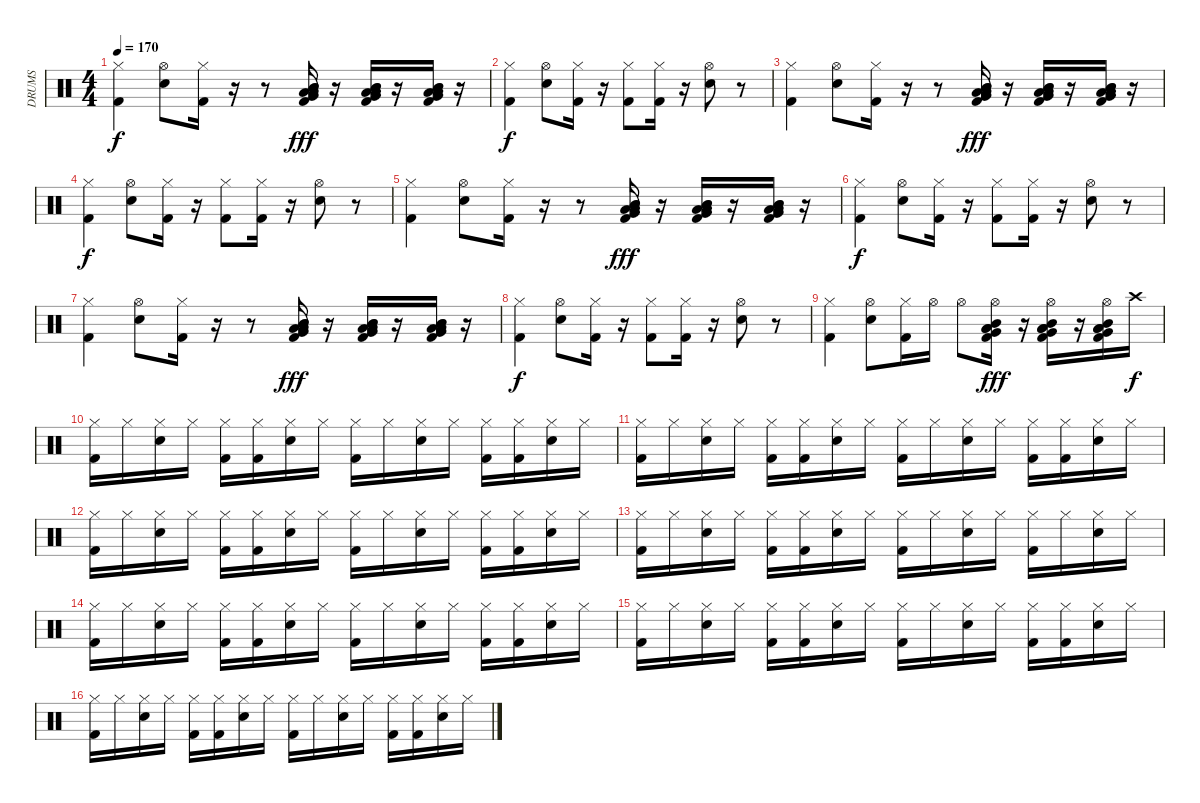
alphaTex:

\track ("DRUMS" "DRUMS") {instrument percussion}
\staff {score}
\articulation defaults
\ts (4 4)
\tempo 170
\clef neutral
\ks c
("Hi-Hat (closed)" "Kick (hit) 2").4{dy f} ("Hi-Hat (open)" "Electric Snare (hit)").8 ("Hi-Hat (closed)" "Kick (hit) 2").16 r.16 r.8 ("Mid Tom (hit)" "Low Floor Tom (hit)" "Very Low Tom (hit)" "Kick (hit) 2" "Mid Tom (hit)" "Low Floor Tom (hit)").16{dy fff} r.16 ("Mid Tom (hit)" "Low Floor Tom (hit)" "Very Low Tom (hit)" "Kick (hit) 2" "Mid Tom (hit)" "Low Floor Tom (hit)").16 r.16 ("Mid Tom (hit)" "Low Floor Tom (hit)" "Very Low Tom (hit)" "Kick (hit) 2" "Mid Tom (hit)" "Low Floor Tom (hit)").16 r.16 |
("Hi-Hat (closed)" "Kick (hit) 2").4{dy f} ("Hi-Hat (open)" "Electric Snare (hit)").8 ("Hi-Hat (closed)" "Kick (hit) 2").16 r.16 ("Hi-Hat (closed)" "Kick (hit) 2").8 ("Hi-Hat (closed)" "Kick (hit) 2").16 r.16 ("Hi-Hat (open)" "Electric Snare (hit)").8 r.8 |
("Hi-Hat (closed)" "Kick (hit) 2").4 ("Hi-Hat (open)" "Electric Snare (hit)").8 ("Hi-Hat (closed)" "Kick (hit) 2").16 r.16 r.8 ("Mid Tom (hit)" "Low Floor Tom (hit)" "Very Low Tom (hit)" "Kick (hit) 2" "Mid Tom (hit)" "Low Floor Tom (hit)").16{dy fff} r.16 ("Mid Tom (hit)" "Low Floor Tom (hit)" "Very Low Tom (hit)" "Kick (hit) 2" "Mid Tom (hit)" "Low Floor Tom (hit)").16 r.16 ("Mid Tom (hit)" "Low Floor Tom (hit)" "Very Low Tom (hit)" "Kick (hit) 2" "Mid Tom (hit)" "Low Floor Tom (hit)").16 r.16 |
("Hi-Hat (closed)" "Kick (hit) 2").4{dy f} ("Hi-Hat (open)" "Electric Snare (hit)").8 ("Hi-Hat (closed)" "Kick (hit) 2").16 r.16 ("Hi-Hat (closed)" "Kick (hit) 2").8 ("Hi-Hat (closed)" "Kick (hit) 2").16 r.16 ("Hi-Hat (open)" "Electric Snare (hit)").8 r.8 |
("Hi-Hat (closed)" "Kick (hit) 2").4 ("Hi-Hat (open)" "Electric Snare (hit)").8 ("Hi-Hat (closed)" "Kick (hit) 2").16 r.16 r.8 ("Mid Tom (hit)" "Low Floor Tom (hit)" "Very Low Tom (hit)" "Kick (hit) 2" "Mid Tom (hit)" "Low Floor Tom (hit)").16{dy fff} r.16 ("Mid Tom (hit)" "Low Floor Tom (hit)" "Very Low Tom (hit)" "Kick (hit) 2" "Mid Tom (hit)" "Low Floor Tom (hit)").16 r.16 ("Mid Tom (hit)" "Low Floor Tom (hit)" "Very Low Tom (hit)" "Kick (hit) 2" "Mid Tom (hit)" "Low Floor Tom (hit)").16 r.16 |
("Hi-Hat (closed)" "Kick (hit) 2").4{dy f} ("Hi-Hat (open)" "Electric Snare (hit)").8 ("Hi-Hat (closed)" "Kick (hit) 2").16 r.16 ("Hi-Hat (closed)" "Kick (hit) 2").8 ("Hi-Hat (closed)" "Kick (hit) 2").16 r.16 ("Hi-Hat (open)" "Electric Snare (hit)").8 r.8 |
("Hi-Hat (closed)" "Kick (hit) 2").4 ("Hi-Hat (open)" "Electric Snare (hit)").8 ("Hi-Hat (closed)" "Kick (hit) 2").16 r.16 r.8 ("Mid Tom (hit)" "Low Floor Tom (hit)" "Very Low Tom (hit)" "Kick (hit) 2" "Mid Tom (hit)" "Low Floor Tom (hit)").16{dy fff} r.16 ("Mid Tom (hit)" "Low Floor Tom (hit)" "Very Low Tom (hit)" "Kick (hit) 2" "Mid Tom (hit)" "Low Floor Tom (hit)").16 r.16 ("Mid Tom (hit)" "Low Floor Tom (hit)" "Very Low Tom (hit)" "Kick (hit) 2" "Mid Tom (hit)" "Low Floor Tom (hit)").16 r.16 |
("Hi-Hat (closed)" "Kick (hit) 2").4{dy f} ("Hi-Hat (open)" "Electric Snare (hit)").8 ("Hi-Hat (closed)" "Kick (hit) 2").16 r.16 ("Hi-Hat (closed)" "Kick (hit) 2").8 ("Hi-Hat (closed)" "Kick (hit) 2").16 r.16 ("Hi-Hat (open)" "Electric Snare (hit)").8 r.8 |
("Hi-Hat (closed)" "Kick (hit) 2").4 ("Hi-Hat (open)" "Electric Snare (hit)").8 ("Hi-Hat (closed)" "Kick (hit) 2").16 "Hi-Hat (open)".16 "Hi-Hat (open)".8 ("Hi-Hat (open)" "Low Floor Tom (hit)" "Very Low Tom (hit)" "Kick (hit) 2" "Mid Tom (hit)" "Low Floor Tom (hit)").16{dy fff} r.16 ("Hi-Hat (open)" "Low Floor Tom (hit)" "Very Low Tom (hit)" "Kick (hit) 2" "Mid Tom (hit)" "Low Floor Tom (hit)").16 r.16 ("Hi-Hat (open)" "Low Floor Tom (hit)" "Very Low Tom (hit)" "Kick (hit) 2" "Mid Tom (hit)" "Low Floor Tom (hit)").16 "Crash high (hit)".16{dy f} |
("Hi-Hat (closed)" "Kick (hit) 2").16 "Hi-Hat (closed)".16 ("Hi-Hat (closed)" "Electric Snare (hit)").16 "Hi-Hat (closed)".16 ("Hi-Hat (closed)" "Kick (hit) 2").16 ("Hi-Hat (closed)" "Kick (hit) 2").16 ("Hi-Hat (closed)" "Electric Snare (hit)").16 "Hi-Hat (closed)".16 ("Hi-Hat (closed)" "Kick (hit) 2").16 "Hi-Hat (closed)".16 ("Hi-Hat (closed)" "Electric Snare (hit)").16 "Hi-Hat (closed)".16 ("Hi-Hat (closed)" "Kick (hit) 2").16 ("Hi-Hat (closed)" "Kick (hit) 2").16 ("Hi-Hat (closed)" "Electric Snare (hit)").16 "Hi-Hat (closed)".16 |
("Hi-Hat (closed)" "Kick (hit) 2").16 "Hi-Hat (closed)".16 ("Hi-Hat (closed)" "Electric Snare (hit)").16 "Hi-Hat (closed)".16 ("Hi-Hat (closed)" "Kick (hit) 2").16 ("Hi-Hat (closed)" "Kick (hit) 2").16 ("Hi-Hat (closed)" "Electric Snare (hit)").16 "Hi-Hat (closed)".16 ("Hi-Hat (closed)" "Kick (hit) 2").16 "Hi-Hat (closed)".16 ("Hi-Hat (closed)" "Electric Snare (hit)").16 "Hi-Hat (closed)".16 ("Hi-Hat (closed)" "Kick (hit) 2").16 ("Hi-Hat (closed)" "Kick (hit) 2").16 ("Hi-Hat (closed)" "Electric Snare (hit)").16 "Hi-Hat (closed)".16 |
("Hi-Hat (closed)" "Kick (hit) 2").16 "Hi-Hat (closed)".16 ("Hi-Hat (closed)" "Electric Snare (hit)").16 "Hi-Hat (closed)".16 ("Hi-Hat (closed)" "Kick (hit) 2").16 ("Hi-Hat (closed)" "Kick (hit) 2").16 ("Hi-Hat (closed)" "Electric Snare (hit)").16 "Hi-Hat (closed)".16 ("Hi-Hat (closed)" "Kick (hit) 2").16 "Hi-Hat (closed)".16 ("Hi-Hat (closed)" "Electric Snare (hit)").16 "Hi-Hat (closed)".16 ("Hi-Hat (closed)" "Kick (hit) 2").16 ("Hi-Hat (closed)" "Kick (hit) 2").16 ("Hi-Hat (closed)" "Electric Snare (hit)").16 "Hi-Hat (closed)".16 |
("Hi-Hat (closed)" "Kick (hit) 2").16 "Hi-Hat (closed)".16 ("Hi-Hat (closed)" "Electric Snare (hit)").16 "Hi-Hat (closed)".16 ("Hi-Hat (closed)" "Kick (hit) 2").16 ("Hi-Hat (closed)" "Kick (hit) 2").16 ("Hi-Hat (closed)" "Electric Snare (hit)").16 "Hi-Hat (closed)".16 ("Hi-Hat (closed)" "Kick (hit) 2").16 "Hi-Hat (closed)".16 ("Hi-Hat (closed)" "Electric Snare (hit)").16 "Hi-Hat (closed)".16 ("Hi-Hat (closed)" "Kick (hit) 2").16 "Hi-Hat (closed)".16 ("Hi-Hat (closed)" "Electric Snare (hit)").16 "Hi-Hat (closed)".16 |
("Hi-Hat (closed)" "Kick (hit) 2").16 "Hi-Hat (closed)".16 ("Hi-Hat (closed)" "Electric Snare (hit)").16 "Hi-Hat (closed)".16 ("Hi-Hat (closed)" "Kick (hit) 2").16 ("Hi-Hat (closed)" "Kick (hit) 2").16 ("Hi-Hat (closed)" "Electric Snare (hit)").16 "Hi-Hat (closed)".16 ("Hi-Hat (closed)" "Kick (hit) 2").16 "Hi-Hat (closed)".16 ("Hi-Hat (closed)" "Electric Snare (hit)").16 "Hi-Hat (closed)".16 ("Hi-Hat (closed)" "Kick (hit) 2").16 ("Hi-Hat (closed)" "Kick (hit) 2").16 ("Hi-Hat (closed)" "Electric Snare (hit)").16 "Hi-Hat (closed)".16 |
("Hi-Hat (closed)" "Kick (hit) 2").16 "Hi-Hat (closed)".16 ("Hi-Hat (closed)" "Electric Snare (hit)").16 "Hi-Hat (closed)".16 ("Hi-Hat (closed)" "Kick (hit) 2").16 ("Hi-Hat (closed)" "Kick (hit) 2").16 ("Hi-Hat (closed)" "Electric Snare (hit)").16 "Hi-Hat (closed)".16 ("Hi-Hat (closed)" "Kick (hit) 2").16 "Hi-Hat (closed)".16 ("Hi-Hat (closed)" "Electric Snare (hit)").16 "Hi-Hat (closed)".16 ("Hi-Hat (closed)" "Kick (hit) 2").16 ("Hi-Hat (closed)" "Kick (hit) 2").16 ("Hi-Hat (closed)" "Electric Snare (hit)").16 "Hi-Hat (closed)".16 |
("Hi-Hat (closed)" "Kick (hit) 2").16 "Hi-Hat (closed)".16 ("Hi-Hat (closed)" "Electric Snare (hit)").16 "Hi-Hat (closed)".16 ("Hi-Hat (closed)" "Kick (hit) 2").16 ("Hi-Hat (closed)" "Kick (hit) 2").16 ("Hi-Hat (closed)" "Electric Snare (hit)").16 "Hi-Hat (closed)".16 ("Hi-Hat (closed)" "Kick (hit) 2").16 "Hi-Hat (closed)".16 ("Hi-Hat (closed)" "Electric Snare (hit)").16 "Hi-Hat (closed)".16 ("Hi-Hat (closed)" "Kick (hit) 2").16 ("Hi-Hat (closed)" "Kick (hit) 2").16 ("Hi-Hat (closed)" "Electric Snare (hit)").16 "Hi-Hat (closed)".16
